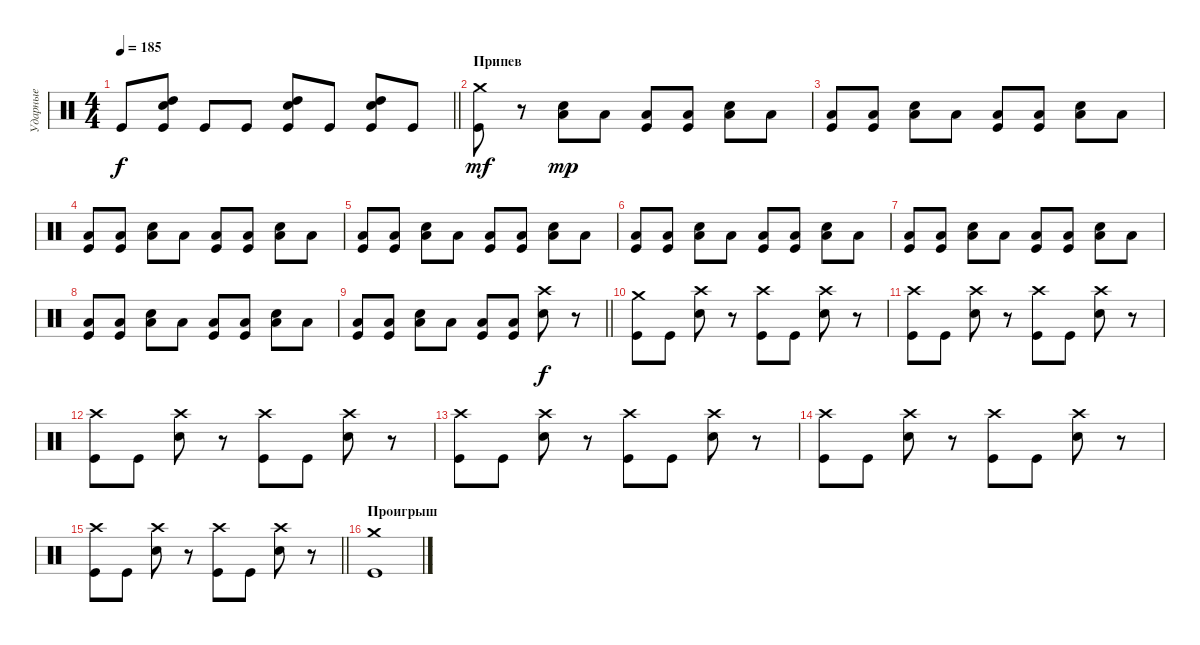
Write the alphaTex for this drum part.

\track ("Ударные" "Ударные") {instrument percussion}
\staff {score}
\articulation defaults
\ts (4 4)
\tempo 185
\clef neutral
\barLineRight lightlight
\ks c "Kick (hit)".8{dy f}
("High Tom (hit)" "Electric Snare (hit)" "Kick (hit)").8 "Kick (hit)".8 "Kick (hit)".8 ("High Tom (hit)" "Electric Snare (hit)" "Kick (hit)").8 "Kick (hit)".8 ("High Tom (hit)" "Electric Snare (hit)" "Kick (hit)").8 "Kick (hit)".8 |
\section ("" "Припев")
("Crash medium (hit)" "Kick (hit)").8{dy mf} r.8 ("Low Tom (hit)" "Electric Snare (hit)").8{dy mp} "Low Tom (hit)".8 ("Low Tom (hit)" "Kick (hit)").8 ("Low Tom (hit)" "Kick (hit)").8 ("Low Tom (hit)" "Electric Snare (hit)").8 "Low Tom (hit)".8 |
("Low Tom (hit)" "Kick (hit)").8 ("Low Tom (hit)" "Kick (hit)").8 ("Low Tom (hit)" "Electric Snare (hit)").8 "Low Tom (hit)".8 ("Low Tom (hit)" "Kick (hit)").8 ("Low Tom (hit)" "Kick (hit)").8 ("Low Tom (hit)" "Electric Snare (hit)").8 "Low Tom (hit)".8 |
("Low Tom (hit)" "Kick (hit)").8 ("Low Tom (hit)" "Kick (hit)").8 ("Low Tom (hit)" "Electric Snare (hit)").8 "Low Tom (hit)".8 ("Low Tom (hit)" "Kick (hit)").8 ("Low Tom (hit)" "Kick (hit)").8 ("Low Tom (hit)" "Electric Snare (hit)").8 "Low Tom (hit)".8 |
("Low Tom (hit)" "Kick (hit)").8 ("Low Tom (hit)" "Kick (hit)").8 ("Low Tom (hit)" "Electric Snare (hit)").8 "Low Tom (hit)".8 ("Low Tom (hit)" "Kick (hit)").8 ("Low Tom (hit)" "Kick (hit)").8 ("Low Tom (hit)" "Electric Snare (hit)").8 "Low Tom (hit)".8 |
("Low Tom (hit)" "Kick (hit)").8 ("Low Tom (hit)" "Kick (hit)").8 ("Low Tom (hit)" "Electric Snare (hit)").8 "Low Tom (hit)".8 ("Low Tom (hit)" "Kick (hit)").8 ("Low Tom (hit)" "Kick (hit)").8 ("Low Tom (hit)" "Electric Snare (hit)").8 "Low Tom (hit)".8 |
("Low Tom (hit)" "Kick (hit)").8 ("Low Tom (hit)" "Kick (hit)").8 ("Low Tom (hit)" "Electric Snare (hit)").8 "Low Tom (hit)".8 ("Low Tom (hit)" "Kick (hit)").8 ("Low Tom (hit)" "Kick (hit)").8 ("Low Tom (hit)" "Electric Snare (hit)").8 "Low Tom (hit)".8 |
("Low Tom (hit)" "Kick (hit)").8 ("Low Tom (hit)" "Kick (hit)").8 ("Low Tom (hit)" "Electric Snare (hit)").8 "Low Tom (hit)".8 ("Low Tom (hit)" "Kick (hit)").8 ("Low Tom (hit)" "Kick (hit)").8 ("Low Tom (hit)" "Electric Snare (hit)").8 "Low Tom (hit)".8 |
\barLineRight lightlight
("Low Tom (hit)" "Kick (hit)").8 ("Low Tom (hit)" "Kick (hit)").8 ("Low Tom (hit)" "Electric Snare (hit)").8 "Low Tom (hit)".8 ("Low Tom (hit)" "Kick (hit)").8 ("Low Tom (hit)" "Kick (hit)").8 ("Crash high (hit)" "Electric Snare (hit)").8{dy f} r.8 |
\section ("" " ")
("Crash medium (hit)" "Kick (hit)").8 "Kick (hit)".8 ("Crash high (hit)" "Electric Snare (hit)").8 r.8 ("Crash high (hit)" "Kick (hit)").8 "Kick (hit)".8 ("Crash high (hit)" "Electric Snare (hit)").8 r.8 |
("Crash high (hit)" "Kick (hit)").8 "Kick (hit)".8 ("Crash high (hit)" "Electric Snare (hit)").8 r.8 ("Crash high (hit)" "Kick (hit)").8 "Kick (hit)".8 ("Crash high (hit)" "Electric Snare (hit)").8 r.8 |
("Crash high (hit)" "Kick (hit)").8 "Kick (hit)".8 ("Crash high (hit)" "Electric Snare (hit)").8 r.8 ("Crash high (hit)" "Kick (hit)").8 "Kick (hit)".8 ("Crash high (hit)" "Electric Snare (hit)").8 r.8 |
("Crash high (hit)" "Kick (hit)").8 "Kick (hit)".8 ("Crash high (hit)" "Electric Snare (hit)").8 r.8 ("Crash high (hit)" "Kick (hit)").8 "Kick (hit)".8 ("Crash high (hit)" "Electric Snare (hit)").8 r.8 |
("Crash high (hit)" "Kick (hit)").8 "Kick (hit)".8 ("Crash high (hit)" "Electric Snare (hit)").8 r.8 ("Crash high (hit)" "Kick (hit)").8 "Kick (hit)".8 ("Crash high (hit)" "Electric Snare (hit)").8 r.8 |
\barLineRight lightlight
("Crash high (hit)" "Kick (hit)").8 "Kick (hit)".8 ("Crash high (hit)" "Electric Snare (hit)").8 r.8 ("Crash high (hit)" "Kick (hit)").8 "Kick (hit)".8 ("Crash high (hit)" "Electric Snare (hit)").8 r.8 |
\section ("" "Проигрыш")
("Crash medium (hit)" "Kick (hit)").1
